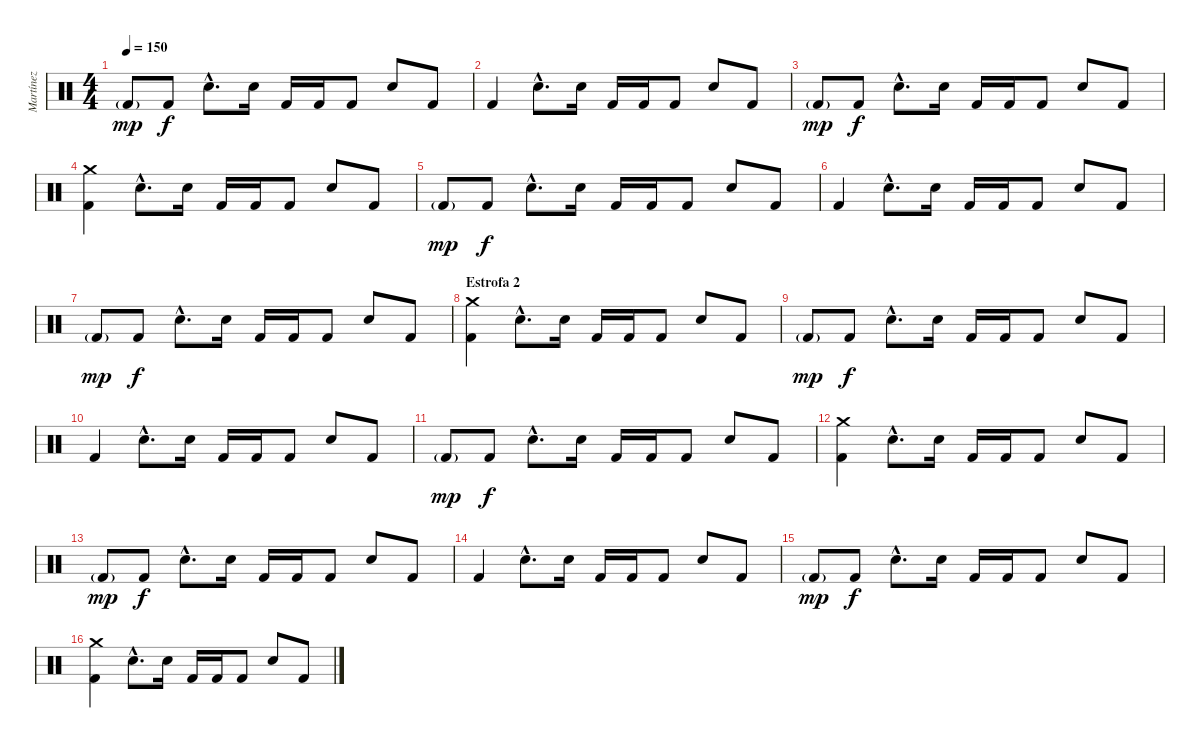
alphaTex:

\track ("Martínez" "Martínez") {instrument percussion}
\staff {score}
\articulation defaults
\ts (4 4)
\tempo 150
\clef neutral
\ks c "Kick (hit) 2"{g}.8{dy mp} "Kick (hit) 2".8{dy f} "Electric Snare (hit)"{hac}.8{d} "Electric Snare (hit)".16 "Kick (hit) 2".16 "Kick (hit) 2".16 "Kick (hit) 2".8 "Electric Snare (hit)".8 "Kick (hit) 2".8
|
"Kick (hit) 2".4 "Electric Snare (hit)"{hac}.8{d} "Electric Snare (hit)".16 "Kick (hit) 2".16 "Kick (hit) 2".16 "Kick (hit) 2".8 "Electric Snare (hit)".8 "Kick (hit) 2".8 |
"Kick (hit) 2"{g}.8{dy mp} "Kick (hit) 2".8{dy f} "Electric Snare (hit)"{hac}.8{d} "Electric Snare (hit)".16 "Kick (hit) 2".16 "Kick (hit) 2".16 "Kick (hit) 2".8 "Electric Snare (hit)".8 "Kick (hit) 2".8 |
("Crash medium (hit)" "Kick (hit) 2").4 "Electric Snare (hit)"{hac}.8{d} "Electric Snare (hit)".16 "Kick (hit) 2".16 "Kick (hit) 2".16 "Kick (hit) 2".8 "Electric Snare (hit)".8 "Kick (hit) 2".8 |
"Kick (hit) 2"{g}.8{dy mp} "Kick (hit) 2".8{dy f} "Electric Snare (hit)"{hac}.8{d} "Electric Snare (hit)".16 "Kick (hit) 2".16 "Kick (hit) 2".16 "Kick (hit) 2".8 "Electric Snare (hit)".8 "Kick (hit) 2".8 |
"Kick (hit) 2".4 "Electric Snare (hit)"{hac}.8{d} "Electric Snare (hit)".16 "Kick (hit) 2".16 "Kick (hit) 2".16 "Kick (hit) 2".8 "Electric Snare (hit)".8 "Kick (hit) 2".8 |
"Kick (hit) 2"{g}.8{dy mp} "Kick (hit) 2".8{dy f} "Electric Snare (hit)"{hac}.8{d} "Electric Snare (hit)".16 "Kick (hit) 2".16 "Kick (hit) 2".16 "Kick (hit) 2".8 "Electric Snare (hit)".8 "Kick (hit) 2".8 |
\section ("" "Estrofa 2")
("Crash medium (hit)" "Kick (hit) 2").4 "Electric Snare (hit)"{hac}.8{d} "Electric Snare (hit)".16 "Kick (hit) 2".16 "Kick (hit) 2".16 "Kick (hit) 2".8 "Electric Snare (hit)".8 "Kick (hit) 2".8 |
"Kick (hit) 2"{g}.8{dy mp} "Kick (hit) 2".8{dy f} "Electric Snare (hit)"{hac}.8{d} "Electric Snare (hit)".16 "Kick (hit) 2".16 "Kick (hit) 2".16 "Kick (hit) 2".8 "Electric Snare (hit)".8 "Kick (hit) 2".8 |
"Kick (hit) 2".4 "Electric Snare (hit)"{hac}.8{d} "Electric Snare (hit)".16 "Kick (hit) 2".16 "Kick (hit) 2".16 "Kick (hit) 2".8 "Electric Snare (hit)".8 "Kick (hit) 2".8 |
"Kick (hit) 2"{g}.8{dy mp} "Kick (hit) 2".8{dy f} "Electric Snare (hit)"{hac}.8{d} "Electric Snare (hit)".16 "Kick (hit) 2".16 "Kick (hit) 2".16 "Kick (hit) 2".8 "Electric Snare (hit)".8 "Kick (hit) 2".8 |
("Crash medium (hit)" "Kick (hit) 2").4 "Electric Snare (hit)"{hac}.8{d} "Electric Snare (hit)".16 "Kick (hit) 2".16 "Kick (hit) 2".16 "Kick (hit) 2".8 "Electric Snare (hit)".8 "Kick (hit) 2".8 |
"Kick (hit) 2"{g}.8{dy mp} "Kick (hit) 2".8{dy f} "Electric Snare (hit)"{hac}.8{d} "Electric Snare (hit)".16 "Kick (hit) 2".16 "Kick (hit) 2".16 "Kick (hit) 2".8 "Electric Snare (hit)".8 "Kick (hit) 2".8 |
"Kick (hit) 2".4 "Electric Snare (hit)"{hac}.8{d} "Electric Snare (hit)".16 "Kick (hit) 2".16 "Kick (hit) 2".16 "Kick (hit) 2".8 "Electric Snare (hit)".8 "Kick (hit) 2".8 |
"Kick (hit) 2"{g}.8{dy mp} "Kick (hit) 2".8{dy f} "Electric Snare (hit)"{hac}.8{d} "Electric Snare (hit)".16 "Kick (hit) 2".16 "Kick (hit) 2".16 "Kick (hit) 2".8 "Electric Snare (hit)".8 "Kick (hit) 2".8 |
("Crash medium (hit)" "Kick (hit) 2").4 "Electric Snare (hit)"{hac}.8{d} "Electric Snare (hit)".16 "Kick (hit) 2".16 "Kick (hit) 2".16 "Kick (hit) 2".8 "Electric Snare (hit)".8 "Kick (hit) 2".8
